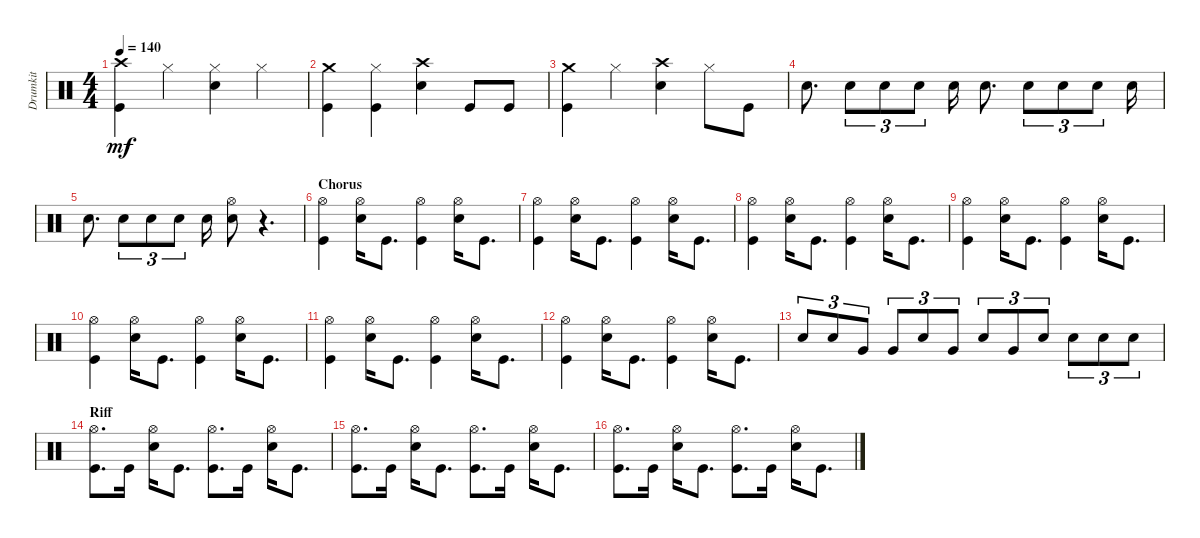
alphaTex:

\track ("Drumkit" "Drumkit") {instrument percussion}
\staff {score}
\articulation defaults
\ts (4 4)
\tempo 140
\clef neutral
\ks c
("Kick (hit)" "Crash high (hit)").4{dy mf} "Hi-Hat (closed)".4 ("Snare (hit) 2" "Hi-Hat (closed)").4 "Hi-Hat (closed)".4 |
("Kick (hit)" "Crash medium (hit)").4 ("Kick (hit)" "Hi-Hat (closed)").4 ("Snare (hit) 2" "Crash high (hit)").4 "Kick (hit)".8 "Kick (hit)".8 |
("Kick (hit)" "Crash medium (hit)").4 "Hi-Hat (closed)".4 ("Snare (hit) 2" "Crash high (hit)").4 "Hi-Hat (closed)".8 "Kick (hit)".8 |
"Snare (hit) 2".8{d} "Snare (hit) 2".8{tu (3 2)} "Snare (hit) 2".8{tu (3 2)} "Snare (hit) 2".8{tu (3 2)} "Snare (hit) 2".16 "Snare (hit) 2".8{d} "Snare (hit) 2".8{tu (3 2)} "Snare (hit) 2".8{tu (3 2)} "Snare (hit) 2".8{tu (3 2)} "Snare (hit) 2".16 |
"Snare (hit) 2".8{d} "Snare (hit) 2".8{tu (3 2)} "Snare (hit) 2".8{tu (3 2)} "Snare (hit) 2".8{tu (3 2)} "Snare (hit) 2".16 ("Snare (hit) 2" "Hi-Hat (open)").8 r.4{d} |
\section ("" "Chorus")
("Kick (hit)" "Hi-Hat (open)").4 ("Snare (hit) 2" "Hi-Hat (open)").16 "Kick (hit)".8{d} ("Kick (hit)" "Hi-Hat (open)").4 ("Snare (hit) 2" "Hi-Hat (open)").16 "Kick (hit)".8{d} |
("Kick (hit)" "Hi-Hat (open)").4 ("Snare (hit) 2" "Hi-Hat (open)").16 "Kick (hit)".8{d} ("Kick (hit)" "Hi-Hat (open)").4 ("Snare (hit) 2" "Hi-Hat (open)").16 "Kick (hit)".8{d} |
("Kick (hit)" "Hi-Hat (open)").4 ("Snare (hit) 2" "Hi-Hat (open)").16 "Kick (hit)".8{d} ("Kick (hit)" "Hi-Hat (open)").4 ("Snare (hit) 2" "Hi-Hat (open)").16 "Kick (hit)".8{d} |
("Kick (hit)" "Hi-Hat (open)").4 ("Snare (hit) 2" "Hi-Hat (open)").16 "Kick (hit)".8{d} ("Kick (hit)" "Hi-Hat (open)").4 ("Snare (hit) 2" "Hi-Hat (open)").16 "Kick (hit)".8{d} |
("Kick (hit)" "Hi-Hat (open)").4 ("Snare (hit) 2" "Hi-Hat (open)").16 "Kick (hit)".8{d} ("Kick (hit)" "Hi-Hat (open)").4 ("Snare (hit) 2" "Hi-Hat (open)").16 "Kick (hit)".8{d} |
("Kick (hit)" "Hi-Hat (open)").4 ("Snare (hit) 2" "Hi-Hat (open)").16 "Kick (hit)".8{d} ("Kick (hit)" "Hi-Hat (open)").4 ("Snare (hit) 2" "Hi-Hat (open)").16 "Kick (hit)".8{d} |
("Kick (hit)" "Hi-Hat (open)").4 ("Snare (hit) 2" "Hi-Hat (open)").16 "Kick (hit)".8{d} ("Kick (hit)" "Hi-Hat (open)").4 ("Snare (hit) 2" "Hi-Hat (open)").16 "Kick (hit)".8{d} |
"Snare (hit) 2".8{tu (3 2)} "Snare (hit) 2".8{tu (3 2)} "Very Low Tom (hit)".8{tu (3 2)} "Very Low Tom (hit)".8{tu (3 2)} "Snare (hit) 2".8{tu (3 2)} "Very Low Tom (hit)".8{tu (3 2)} "Snare (hit) 2".8{tu (3 2)} "Very Low Tom (hit)".8{tu (3 2)} "Snare (hit) 2".8{tu (3 2)} "Snare (hit) 2".8{tu (3 2)} "Snare (hit) 2".8{tu (3 2)} "Snare (hit) 2".8{tu (3 2)} |
\section ("" "Riff")
("Kick (hit)" "Hi-Hat (open)").8{d} "Kick (hit)".16 ("Snare (hit) 2" "Hi-Hat (open)").16 "Kick (hit)".8{d} ("Kick (hit)" "Hi-Hat (open)").8{d} "Kick (hit)".16 ("Snare (hit) 2" "Hi-Hat (open)").16 "Kick (hit)".8{d} |
("Kick (hit)" "Hi-Hat (open)").8{d} "Kick (hit)".16 ("Snare (hit) 2" "Hi-Hat (open)").16 "Kick (hit)".8{d} ("Kick (hit)" "Hi-Hat (open)").8{d} "Kick (hit)".16 ("Snare (hit) 2" "Hi-Hat (open)").16 "Kick (hit)".8{d} |
("Kick (hit)" "Hi-Hat (open)").8{d} "Kick (hit)".16 ("Snare (hit) 2" "Hi-Hat (open)").16 "Kick (hit)".8{d} ("Kick (hit)" "Hi-Hat (open)").8{d} "Kick (hit)".16 ("Snare (hit) 2" "Hi-Hat (open)").16 "Kick (hit)".8{d}
